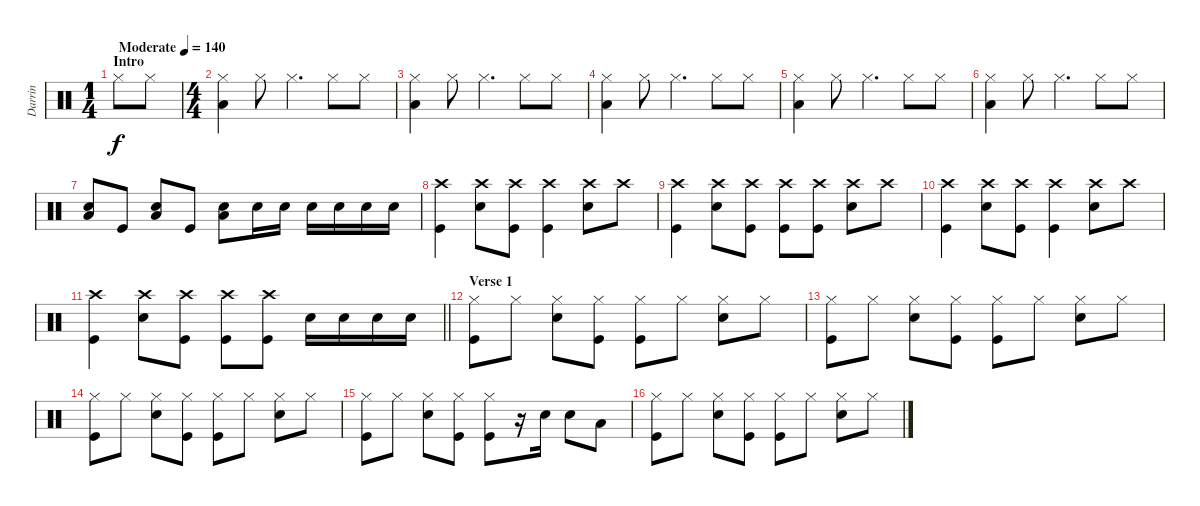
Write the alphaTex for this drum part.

\track ("Darrin" "Darrin") {instrument percussion}
\staff {score}
\articulation defaults
\ts (1 4)
\section ("" "Intro")
\tempo (140 "Moderate")
\clef neutral
\ks c "Hi-Hat (closed)".8{dy f} "Hi-Hat (closed)".8
|
\ts (4 4)
("Hi-Hat (closed)" "Low Floor Tom (hit)").4 "Hi-Hat (closed)".8 "Hi-Hat (closed)".4{d} "Hi-Hat (closed)".8 "Hi-Hat (closed)".8 |
("Hi-Hat (closed)" "Low Floor Tom (hit)").4 "Hi-Hat (closed)".8 "Hi-Hat (closed)".4{d} "Hi-Hat (closed)".8 "Hi-Hat (closed)".8 |
("Hi-Hat (closed)" "Low Floor Tom (hit)").4 "Hi-Hat (closed)".8 "Hi-Hat (closed)".4{d} "Hi-Hat (closed)".8 "Hi-Hat (closed)".8 |
("Hi-Hat (closed)" "Low Floor Tom (hit)").4 "Hi-Hat (closed)".8 "Hi-Hat (closed)".4{d} "Hi-Hat (closed)".8 "Hi-Hat (closed)".8 |
("Hi-Hat (closed)" "Low Floor Tom (hit)").4 "Hi-Hat (closed)".8 "Hi-Hat (closed)".4{d} "Hi-Hat (closed)".8 "Hi-Hat (closed)".8 |
("Snare (hit) 2" "Low Floor Tom (hit)").8 "Kick (hit)".8 ("Snare (hit) 2" "Low Floor Tom (hit)").8 "Kick (hit)".8 ("Snare (hit) 2" "Low Floor Tom (hit)").8 "Snare (hit) 2".16 "Snare (hit) 2".16 "Snare (hit) 2".16 "Snare (hit) 2".16 "Snare (hit) 2".16 "Snare (hit) 2".16 |
("Crash high (hit)" "Kick (hit)").4 ("Crash high (hit)" "Snare (hit) 2").8 ("Crash high (hit)" "Kick (hit)").8 ("Crash high (hit)" "Kick (hit)").4 ("Crash high (hit)" "Snare (hit) 2").8 "Crash high (hit)".8 |
("Crash high (hit)" "Kick (hit)").4 ("Crash high (hit)" "Snare (hit) 2").8 ("Crash high (hit)" "Kick (hit)").8 ("Crash high (hit)" "Kick (hit)").8 ("Crash high (hit)" "Kick (hit)").8 ("Crash high (hit)" "Snare (hit) 2").8 "Crash high (hit)".8 |
("Crash high (hit)" "Kick (hit)").4 ("Crash high (hit)" "Snare (hit) 2").8 ("Crash high (hit)" "Kick (hit)").8 ("Crash high (hit)" "Kick (hit)").4 ("Crash high (hit)" "Snare (hit) 2").8 "Crash high (hit)".8 |
\barLineRight lightlight
("Crash high (hit)" "Kick (hit)").4 ("Crash high (hit)" "Snare (hit) 2").8 ("Crash high (hit)" "Kick (hit)").8 ("Crash high (hit)" "Kick (hit)").8 ("Crash high (hit)" "Kick (hit)").8 "Snare (hit) 2".16 "Snare (hit) 2".16 "Snare (hit) 2".16 "Snare (hit) 2".16 |
\section ("" "Verse 1")
("Hi-Hat (closed)" "Kick (hit)").8 "Hi-Hat (closed)".8 ("Hi-Hat (closed)" "Snare (hit) 2").8 ("Hi-Hat (closed)" "Kick (hit)").8 ("Hi-Hat (closed)" "Kick (hit)").8 "Hi-Hat (closed)".8 ("Hi-Hat (closed)" "Snare (hit) 2").8 "Hi-Hat (closed)".8 |
("Hi-Hat (closed)" "Kick (hit)").8 "Hi-Hat (closed)".8 ("Hi-Hat (closed)" "Snare (hit) 2").8 ("Hi-Hat (closed)" "Kick (hit)").8 ("Hi-Hat (closed)" "Kick (hit)").8 "Hi-Hat (closed)".8 ("Hi-Hat (closed)" "Snare (hit) 2").8 "Hi-Hat (closed)".8 |
("Hi-Hat (closed)" "Kick (hit)").8 "Hi-Hat (closed)".8 ("Hi-Hat (closed)" "Snare (hit) 2").8 ("Hi-Hat (closed)" "Kick (hit)").8 ("Hi-Hat (closed)" "Kick (hit)").8 "Hi-Hat (closed)".8 ("Hi-Hat (closed)" "Snare (hit) 2").8 "Hi-Hat (closed)".8 |
("Hi-Hat (closed)" "Kick (hit)").8 "Hi-Hat (closed)".8 ("Hi-Hat (closed)" "Snare (hit) 2").8 ("Hi-Hat (closed)" "Kick (hit)").8 ("Hi-Hat (closed)" "Kick (hit)").8 r.16 "Snare (hit) 2".16 "Snare (hit) 2".8 "Low Tom (hit)".8 |
("Hi-Hat (closed)" "Kick (hit)").8 "Hi-Hat (closed)".8 ("Hi-Hat (closed)" "Snare (hit) 2").8 ("Hi-Hat (closed)" "Kick (hit)").8 ("Hi-Hat (closed)" "Kick (hit)").8 "Hi-Hat (closed)".8 ("Hi-Hat (closed)" "Snare (hit) 2").8 "Hi-Hat (closed)".8
